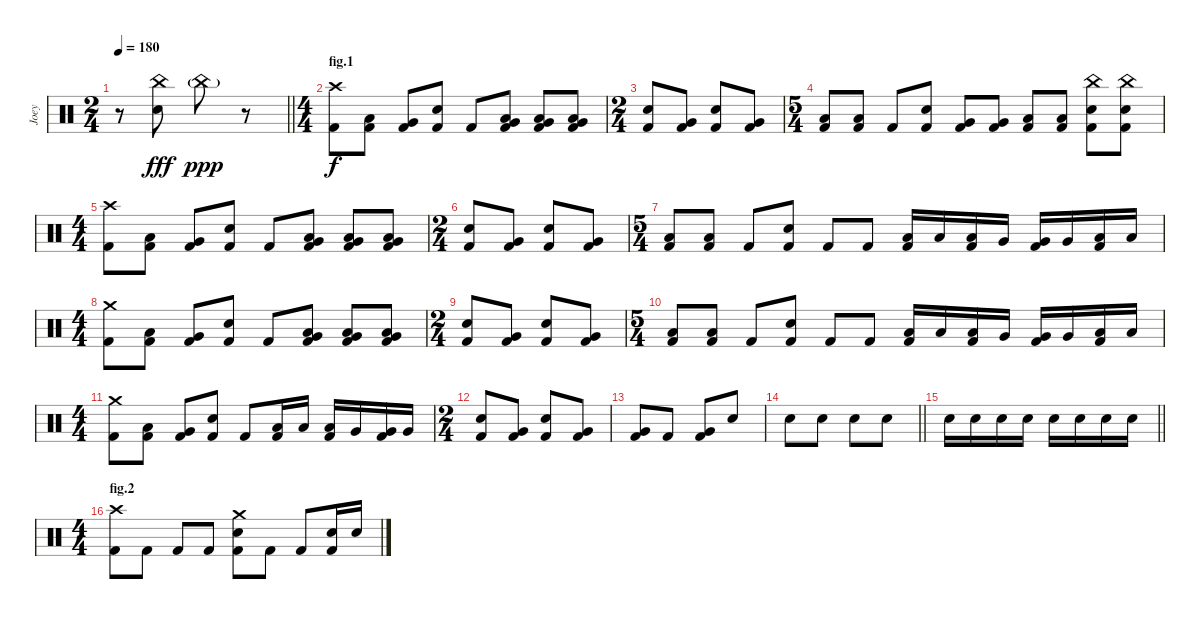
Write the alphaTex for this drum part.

\track ("Joey" "Joey") {instrument percussion}
\staff {score}
\articulation defaults
\ts (2 4)
\tempo 180
\clef neutral
\barLineRight lightlight
\ks c
r.8{dy fff} ("China (hit)" "Electric Snare (hit)").8 "China (hit)"{g}.8{dy ppp} r.8 |
\ts (4 4)
\section ("" "fig.1")
("Crash high (hit)" "Kick (hit) 2").8{dy f} ("Low Tom (hit)" "Kick (hit) 2").8 ("Very Low Tom (hit)" "Kick (hit) 2").8 ("Electric Snare (hit)" "Kick (hit) 2").8 "Kick (hit) 2".8 ("Very Low Tom (hit)" "Low Floor Tom (hit)" "Kick (hit) 2").8 ("Very Low Tom (hit)" "Low Floor Tom (hit)" "Kick (hit) 2").8 ("Very Low Tom (hit)" "Low Floor Tom (hit)" "Kick (hit) 2").8 |
\ts (2 4)
("Electric Snare (hit)" "Kick (hit) 2").8 ("Very Low Tom (hit)" "Kick (hit) 2").8 ("Electric Snare (hit)" "Kick (hit) 2").8 ("Very Low Tom (hit)" "Kick (hit) 2").8 |
\ts (5 4)
("Low Floor Tom (hit)" "Kick (hit) 2").8 ("Low Floor Tom (hit)" "Kick (hit) 2").8 "Kick (hit) 2".8 ("Electric Snare (hit)" "Kick (hit) 2").8 ("Very Low Tom (hit)" "Kick (hit) 2").8 ("Very Low Tom (hit)" "Kick (hit) 2").8 ("Low Floor Tom (hit)" "Kick (hit) 2").8 ("Low Floor Tom (hit)" "Kick (hit) 2").8 ("China (hit)" "Electric Snare (hit)" "Kick (hit) 2").8 ("China (hit)" "Electric Snare (hit)" "Kick (hit) 2").8 |
\ts (4 4)
("Crash high (hit)" "Kick (hit) 2").8 ("Low Tom (hit)" "Kick (hit) 2").8 ("Very Low Tom (hit)" "Kick (hit) 2").8 ("Electric Snare (hit)" "Kick (hit) 2").8 "Kick (hit) 2".8 ("Very Low Tom (hit)" "Low Floor Tom (hit)" "Kick (hit) 2").8 ("Very Low Tom (hit)" "Low Floor Tom (hit)" "Kick (hit) 2").8 ("Very Low Tom (hit)" "Low Floor Tom (hit)" "Kick (hit) 2").8 |
\ts (2 4)
("Electric Snare (hit)" "Kick (hit) 2").8 ("Very Low Tom (hit)" "Kick (hit) 2").8 ("Electric Snare (hit)" "Kick (hit) 2").8 ("Very Low Tom (hit)" "Kick (hit) 2").8 |
\ts (5 4)
("Low Floor Tom (hit)" "Kick (hit) 2").8 ("Low Floor Tom (hit)" "Kick (hit) 2").8 "Kick (hit) 2".8 ("Electric Snare (hit)" "Kick (hit) 2").8 "Kick (hit) 2".8 "Kick (hit) 2".8 ("Low Tom (hit)" "Kick (hit) 2").16 "Low Tom (hit)".16 ("Low Tom (hit)" "Kick (hit) 2").16 "Very Low Tom (hit)".16 ("Very Low Tom (hit)" "Kick (hit) 2").16 "Very Low Tom (hit)".16 ("Low Floor Tom (hit)" "Kick (hit) 2").16 "Low Floor Tom (hit)".16 |
\ts (4 4)
("Crash medium (hit)" "Kick (hit) 2").8 ("Low Tom (hit)" "Kick (hit) 2").8 ("Very Low Tom (hit)" "Kick (hit) 2").8 ("Electric Snare (hit)" "Kick (hit) 2").8 "Kick (hit) 2".8 ("Very Low Tom (hit)" "Low Floor Tom (hit)" "Kick (hit) 2").8 ("Very Low Tom (hit)" "Low Floor Tom (hit)" "Kick (hit) 2").8 ("Very Low Tom (hit)" "Low Floor Tom (hit)" "Kick (hit) 2").8 |
\ts (2 4)
("Electric Snare (hit)" "Kick (hit) 2").8 ("Very Low Tom (hit)" "Kick (hit) 2").8 ("Electric Snare (hit)" "Kick (hit) 2").8 ("Very Low Tom (hit)" "Kick (hit) 2").8 |
\ts (5 4)
("Low Floor Tom (hit)" "Kick (hit) 2").8 ("Low Floor Tom (hit)" "Kick (hit) 2").8 "Kick (hit) 2".8 ("Electric Snare (hit)" "Kick (hit) 2").8 "Kick (hit) 2".8 "Kick (hit) 2".8 ("Low Tom (hit)" "Kick (hit) 2").16 "Low Tom (hit)".16 ("Low Tom (hit)" "Kick (hit) 2").16 "Very Low Tom (hit)".16 ("Very Low Tom (hit)" "Kick (hit) 2").16 "Very Low Tom (hit)".16 ("Low Floor Tom (hit)" "Kick (hit) 2").16 "Low Floor Tom (hit)".16 |
\ts (4 4)
("Crash medium (hit)" "Kick (hit) 2").8 ("Low Tom (hit)" "Kick (hit) 2").8 ("Very Low Tom (hit)" "Kick (hit) 2").8 ("Electric Snare (hit)" "Kick (hit) 2").8 "Kick (hit) 2".8 ("Low Tom (hit)" "Kick (hit) 2").16 "Low Tom (hit)".16 ("Low Tom (hit)" "Kick (hit) 2").16 "Very Low Tom (hit)".16 ("Very Low Tom (hit)" "Kick (hit) 2").16 "Very Low Tom (hit)".16 |
\ts (2 4)
("Electric Snare (hit)" "Kick (hit) 2").8 ("Very Low Tom (hit)" "Kick (hit) 2").8 ("Electric Snare (hit)" "Kick (hit) 2").8 ("Very Low Tom (hit)" "Kick (hit) 2").8 |
("Very Low Tom (hit)" "Kick (hit) 2").8 "Kick (hit) 2".8 ("Very Low Tom (hit)" "Kick (hit) 2").8 "Electric Snare (hit)".8 |
\barLineRight lightlight "Electric Snare (hit)".8 "Electric Snare (hit)".8 "Electric Snare (hit)".8 "Electric Snare (hit)".8
|
\barLineRight lightlight "Electric Snare (hit)".16 "Electric Snare (hit)".16 "Electric Snare (hit)".16 "Electric Snare (hit)".16 "Electric Snare (hit)".16 "Electric Snare (hit)".16 "Electric Snare (hit)".16 "Electric Snare (hit)".16
|
\ts (4 4)
\section ("" "fig.2")
("Crash high (hit)" "Kick (hit) 2").8 "Kick (hit) 2".8 "Kick (hit) 2".8 "Kick (hit) 2".8 ("Crash medium (hit)" "Electric Snare (hit)" "Kick (hit) 2").8 "Kick (hit) 2".8 "Kick (hit) 2".8 ("Electric Snare (hit)" "Kick (hit) 2").16 "Electric Snare (hit)".16
